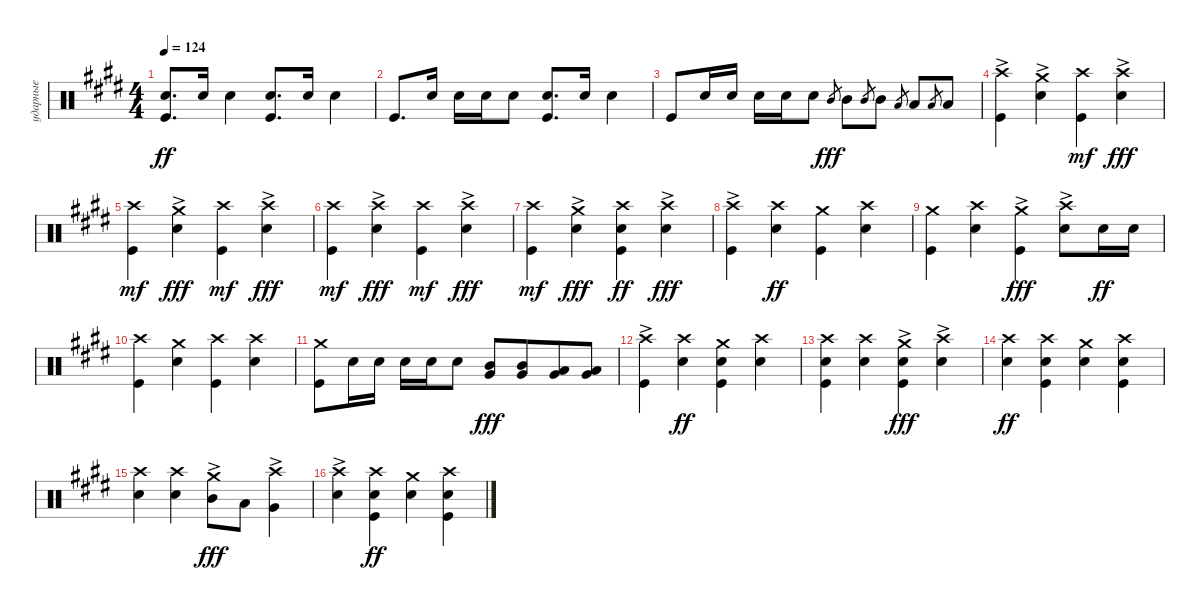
\track ("ударные" "ударные") {instrument percussion}
\staff {score}
\articulation defaults
\ts (4 4)
\tempo 124
\clef neutral
\ks e
("Kick (hit)" "Snare (hit) 2").8{d dy ff} "Snare (hit) 2".16 "Snare (hit) 2".4 ("Kick (hit)" "Snare (hit) 2").8{d} "Snare (hit) 2".16 "Snare (hit) 2".4 |
"Kick (hit)".8{d} "Snare (hit) 2".16 "Snare (hit) 2".16 "Snare (hit) 2".16 "Snare (hit) 2".8 ("Kick (hit)" "Snare (hit) 2").8{d} "Snare (hit) 2".16 "Snare (hit) 2".4 |
"Kick (hit)".8 "Snare (hit) 2".16 "Snare (hit) 2".16 "Snare (hit) 2".16 "Snare (hit) 2".16 "Snare (hit) 2".8 "Mid Tom (hit)".8{gr dy fff} "Mid Tom (hit)".8 "Mid Tom (hit)".8{gr} "Mid Tom (hit)".8 "Low Tom (hit)".8{gr beam merge} "Low Tom (hit)".8 "Low Tom (hit)".8{gr} "Low Tom (hit)".8 |
("Kick (hit)" "Crash high (hit)"{ac}).4 ("Snare (hit) 2" "Crash medium (hit)"{ac}).4 ("Kick (hit)" "Crash high (hit)").4{dy mf} ("Snare (hit) 2" "Crash high (hit)"{ac}).4{dy fff} |
("Kick (hit)" "Crash high (hit)").4{dy mf} ("Snare (hit) 2" "Crash medium (hit)"{ac}).4{dy fff} ("Kick (hit)" "Crash high (hit)").4{dy mf} ("Snare (hit) 2" "Crash high (hit)"{ac}).4{dy fff} |
("Kick (hit)" "Crash high (hit)").4{dy mf} ("Snare (hit) 2" "Crash high (hit)"{ac}).4{dy fff} ("Kick (hit)" "Crash high (hit)").4{dy mf} ("Snare (hit) 2" "Crash high (hit)"{ac}).4{dy fff} |
("Kick (hit)" "Crash high (hit)").4{dy mf} ("Snare (hit) 2" "Crash medium (hit)"{ac}).4{dy fff} ("Kick (hit)" "Crash high (hit)" "Snare (hit) 2").4{dy ff} ("Snare (hit) 2" "Crash high (hit)"{ac}).4{dy fff} |
("Kick (hit)" "Crash high (hit)"{ac}).4 ("Snare (hit) 2" "Crash high (hit)").4{dy ff} ("Kick (hit)" "Crash medium (hit)").4 ("Snare (hit) 2" "Crash high (hit)").4 |
("Kick (hit)" "Crash medium (hit)").4 ("Snare (hit) 2" "Crash high (hit)").4 ("Kick (hit)" "Crash medium (hit)"{ac}).4{dy fff} ("Snare (hit) 2" "Crash high (hit)"{ac}).8 "Snare (hit) 2".16{dy ff} "Snare (hit) 2".16 |
("Kick (hit)" "Crash high (hit)").4 ("Snare (hit) 2" "Crash medium (hit)").4 ("Kick (hit)" "Crash high (hit)").4 ("Snare (hit) 2" "Crash high (hit)").4 |
("Kick (hit)" "Crash medium (hit)").8 "Snare (hit) 2".16 "Snare (hit) 2".16 "Snare (hit) 2".16 "Snare (hit) 2".16 "Snare (hit) 2".8 ("Mid Tom (hit)" "Very Low Tom (hit)").8{dy fff} ("Mid Tom (hit)" "Very Low Tom (hit)").8{beam merge} ("Low Tom (hit)" "Very Low Tom (hit)").8 ("Low Tom (hit)" "Very Low Tom (hit)").8 |
("Kick (hit)" "Crash high (hit)"{ac}).4 ("Snare (hit) 2" "Crash high (hit)").4{dy ff} ("Snare (hit) 2" "Kick (hit)" "Crash medium (hit)").4 ("Snare (hit) 2" "Crash high (hit)").4 |
("Kick (hit)" "Snare (hit) 2" "Crash high (hit)").4 ("Snare (hit) 2" "Crash high (hit)").4 ("Kick (hit)" "Snare (hit) 2" "Crash medium (hit)"{ac}).4{dy fff} ("Snare (hit) 2" "Crash high (hit)"{ac}).4 |
("Snare (hit) 2" "Crash high (hit)").4{dy ff} ("Kick (hit)" "Snare (hit) 2" "Crash high (hit)").4 ("Snare (hit) 2" "Crash medium (hit)").4 ("Kick (hit)" "Snare (hit) 2" "Crash high (hit)").4 |
("Snare (hit) 2" "Crash high (hit)").4 ("Snare (hit) 2" "Crash high (hit)").4 ("Mid Tom (hit)" "Crash medium (hit)"{ac}).8{dy fff} "Low Tom (hit)".8 ("Very Low Tom (hit)" "Crash high (hit)"{ac}).4 |
("Snare (hit) 2" "Crash high (hit)"{ac}).4 ("Kick (hit)" "Snare (hit) 2" "Crash high (hit)").4{dy ff} ("Snare (hit) 2" "Crash medium (hit)").4 ("Kick (hit)" "Snare (hit) 2" "Crash high (hit)").4
